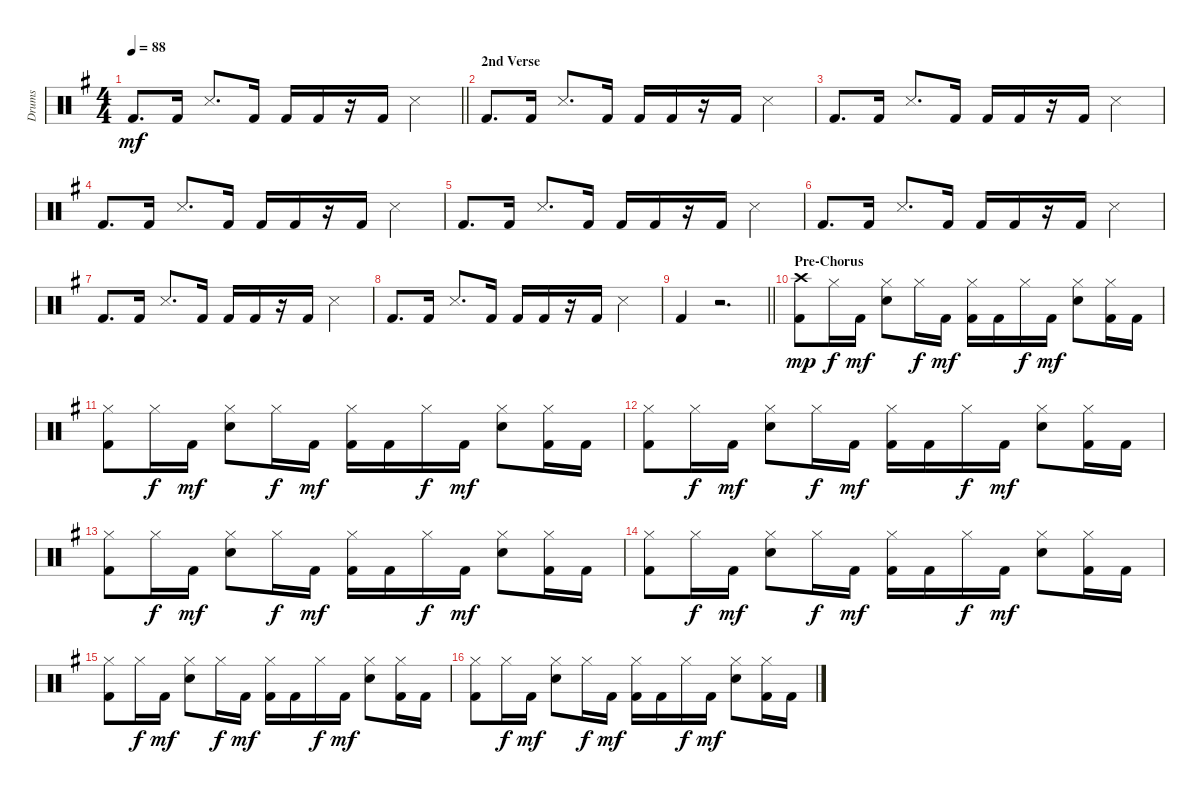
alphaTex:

\track ("Drums" "Drums") {instrument percussion}
\staff {score}
\articulation defaults
\ts (4 4)
\tempo 88
\clef neutral
\barLineRight lightlight
\ks eminor "Kick (hit) 2".8{d dy mf} "Kick (hit) 2".16 "Snare (side stick) 3".8{d} "Kick (hit) 2".16 "Kick (hit) 2".16 "Kick (hit) 2".16
r.16 "Kick (hit) 2".16 "Snare (side stick) 3".4 |
\section ("" "2nd Verse")
"Kick (hit) 2".8{d} "Kick (hit) 2".16 "Snare (side stick) 3".8{d} "Kick (hit) 2".16 "Kick (hit) 2".16 "Kick (hit) 2".16 r.16 "Kick (hit) 2".16 "Snare (side stick) 3".4 |
"Kick (hit) 2".8{d} "Kick (hit) 2".16 "Snare (side stick) 3".8{d} "Kick (hit) 2".16 "Kick (hit) 2".16 "Kick (hit) 2".16 r.16 "Kick (hit) 2".16 "Snare (side stick) 3".4 |
"Kick (hit) 2".8{d} "Kick (hit) 2".16 "Snare (side stick) 3".8{d} "Kick (hit) 2".16 "Kick (hit) 2".16 "Kick (hit) 2".16 r.16 "Kick (hit) 2".16 "Snare (side stick) 3".4 |
"Kick (hit) 2".8{d} "Kick (hit) 2".16 "Snare (side stick) 3".8{d} "Kick (hit) 2".16 "Kick (hit) 2".16 "Kick (hit) 2".16 r.16 "Kick (hit) 2".16 "Snare (side stick) 3".4 |
"Kick (hit) 2".8{d} "Kick (hit) 2".16 "Snare (side stick) 3".8{d} "Kick (hit) 2".16 "Kick (hit) 2".16 "Kick (hit) 2".16 r.16 "Kick (hit) 2".16 "Snare (side stick) 3".4 |
"Kick (hit) 2".8{d} "Kick (hit) 2".16 "Snare (side stick) 3".8{d} "Kick (hit) 2".16 "Kick (hit) 2".16 "Kick (hit) 2".16 r.16 "Kick (hit) 2".16 "Snare (side stick) 3".4 |
"Kick (hit) 2".8{d} "Kick (hit) 2".16 "Snare (side stick) 3".8{d} "Kick (hit) 2".16 "Kick (hit) 2".16 "Kick (hit) 2".16 r.16 "Kick (hit) 2".16 "Snare (side stick) 3".4 |
\barLineRight lightlight "Kick (hit) 2".4
r.2{d} |
\section ("" "Pre-Chorus")
("Kick (hit) 2" "Crash high (hit)").8{dy mp} "Hi-Hat (closed)".16{dy f} "Kick (hit) 2".16{dy mf} ("Snare (hit) 2" "Hi-Hat (closed)").8 "Hi-Hat (closed)".16{dy f} "Kick (hit) 2".16{dy mf} ("Kick (hit) 2" "Hi-Hat (closed)").16 "Kick (hit) 2".16 "Hi-Hat (closed)".16{dy f} "Kick (hit) 2".16{dy mf} ("Snare (hit) 2" "Hi-Hat (closed)").8 ("Kick (hit) 2" "Hi-Hat (closed)").16 "Kick (hit) 2".16 |
("Kick (hit) 2" "Hi-Hat (closed)").8 "Hi-Hat (closed)".16{dy f} "Kick (hit) 2".16{dy mf} ("Snare (hit) 2" "Hi-Hat (closed)").8 "Hi-Hat (closed)".16{dy f} "Kick (hit) 2".16{dy mf} ("Kick (hit) 2" "Hi-Hat (closed)").16 "Kick (hit) 2".16 "Hi-Hat (closed)".16{dy f} "Kick (hit) 2".16{dy mf} ("Snare (hit) 2" "Hi-Hat (closed)").8 ("Kick (hit) 2" "Hi-Hat (closed)").16 "Kick (hit) 2".16 |
("Kick (hit) 2" "Hi-Hat (closed)").8 "Hi-Hat (closed)".16{dy f} "Kick (hit) 2".16{dy mf} ("Snare (hit) 2" "Hi-Hat (closed)").8 "Hi-Hat (closed)".16{dy f} "Kick (hit) 2".16{dy mf} ("Kick (hit) 2" "Hi-Hat (closed)").16 "Kick (hit) 2".16 "Hi-Hat (closed)".16{dy f} "Kick (hit) 2".16{dy mf} ("Snare (hit) 2" "Hi-Hat (closed)").8 ("Kick (hit) 2" "Hi-Hat (closed)").16 "Kick (hit) 2".16 |
("Kick (hit) 2" "Hi-Hat (closed)").8 "Hi-Hat (closed)".16{dy f} "Kick (hit) 2".16{dy mf} ("Snare (hit) 2" "Hi-Hat (closed)").8 "Hi-Hat (closed)".16{dy f} "Kick (hit) 2".16{dy mf} ("Kick (hit) 2" "Hi-Hat (closed)").16 "Kick (hit) 2".16 "Hi-Hat (closed)".16{dy f} "Kick (hit) 2".16{dy mf} ("Snare (hit) 2" "Hi-Hat (closed)").8 ("Kick (hit) 2" "Hi-Hat (closed)").16 "Kick (hit) 2".16 |
("Kick (hit) 2" "Hi-Hat (closed)").8 "Hi-Hat (closed)".16{dy f} "Kick (hit) 2".16{dy mf} ("Snare (hit) 2" "Hi-Hat (closed)").8 "Hi-Hat (closed)".16{dy f} "Kick (hit) 2".16{dy mf} ("Kick (hit) 2" "Hi-Hat (closed)").16 "Kick (hit) 2".16 "Hi-Hat (closed)".16{dy f} "Kick (hit) 2".16{dy mf} ("Snare (hit) 2" "Hi-Hat (closed)").8 ("Kick (hit) 2" "Hi-Hat (closed)").16 "Kick (hit) 2".16 |
("Kick (hit) 2" "Hi-Hat (closed)").8 "Hi-Hat (closed)".16{dy f} "Kick (hit) 2".16{dy mf} ("Snare (hit) 2" "Hi-Hat (closed)").8 "Hi-Hat (closed)".16{dy f} "Kick (hit) 2".16{dy mf} ("Kick (hit) 2" "Hi-Hat (closed)").16 "Kick (hit) 2".16 "Hi-Hat (closed)".16{dy f} "Kick (hit) 2".16{dy mf} ("Snare (hit) 2" "Hi-Hat (closed)").8 ("Kick (hit) 2" "Hi-Hat (closed)").16 "Kick (hit) 2".16 |
("Kick (hit) 2" "Hi-Hat (closed)").8 "Hi-Hat (closed)".16{dy f} "Kick (hit) 2".16{dy mf} ("Snare (hit) 2" "Hi-Hat (closed)").8 "Hi-Hat (closed)".16{dy f} "Kick (hit) 2".16{dy mf} ("Kick (hit) 2" "Hi-Hat (closed)").16 "Kick (hit) 2".16 "Hi-Hat (closed)".16{dy f} "Kick (hit) 2".16{dy mf} ("Snare (hit) 2" "Hi-Hat (closed)").8 ("Kick (hit) 2" "Hi-Hat (closed)").16 "Kick (hit) 2".16
